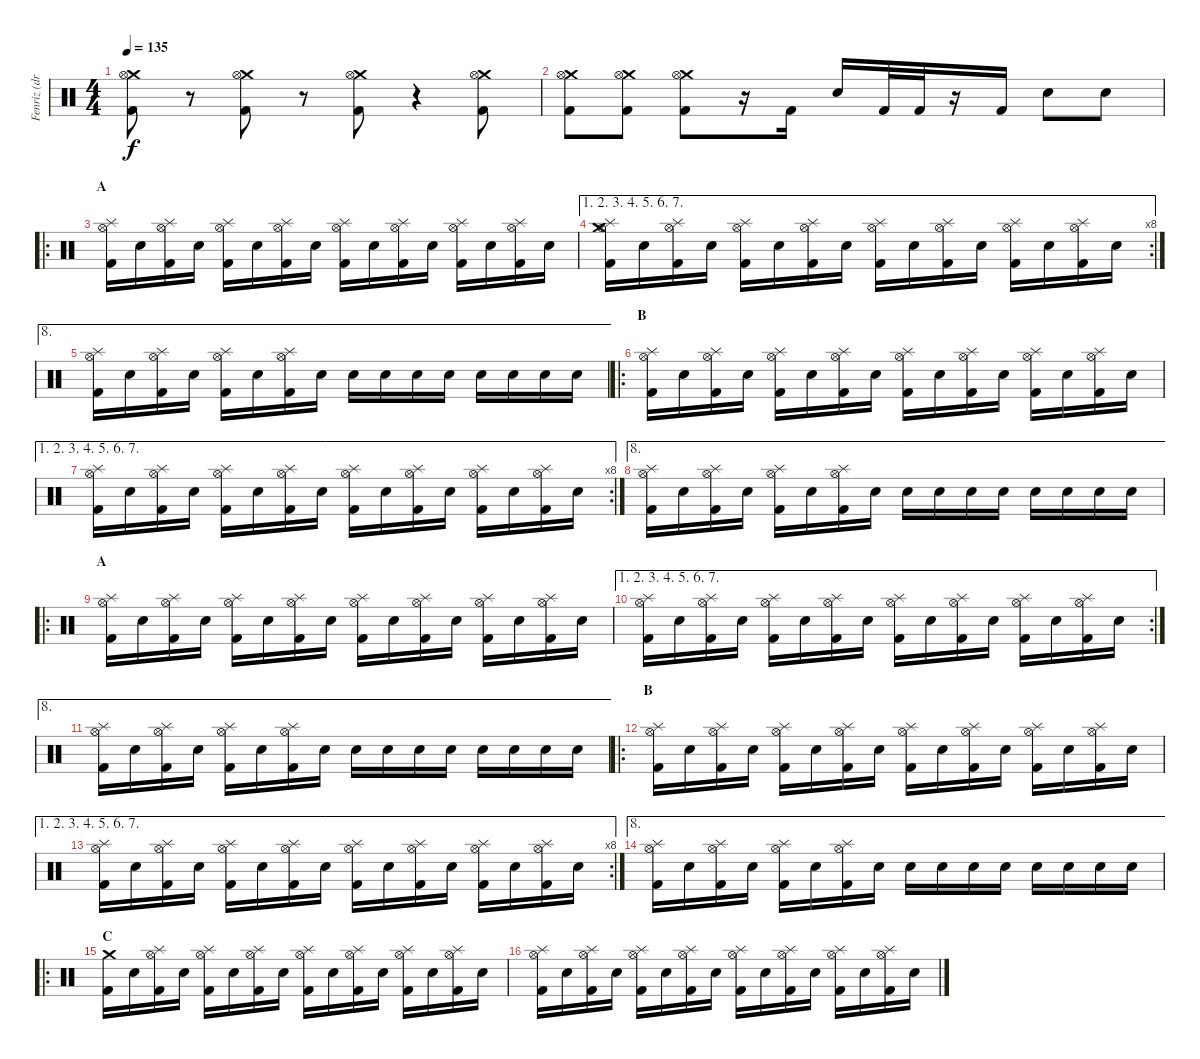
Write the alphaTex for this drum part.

\track ("Fenriz (drums)" "Fenriz (dr") {instrument percussion}
\staff {score}
\articulation defaults
\ts (4 4)
\tempo 135
\clef neutral
\ks c
("Crash medium (hit)" "Hi-Hat (open)" "Kick (hit) 2").8{dy f} r.8 ("Crash medium (hit)" "Hi-Hat (open)" "Kick (hit) 2").8 r.8 ("Crash medium (hit)" "Hi-Hat (open)" "Kick (hit) 2").8 r.4 ("Crash medium (hit)" "Hi-Hat (open)" "Kick (hit) 2").8 |
("Crash medium (hit)" "Hi-Hat (open)" "Kick (hit) 2").8 ("Crash medium (hit)" "Hi-Hat (open)" "Kick (hit) 2").8 ("Crash medium (hit)" "Hi-Hat (open)" "Kick (hit) 2").8 r.16 "Kick (hit) 2".16 "Electric Snare (hit)".16 "Kick (hit) 2".32 "Kick (hit) 2".32 r.16 "Kick (hit) 2".16 "Electric Snare (hit)".8 "Electric Snare (hit)".8 |
\ro
\section ("" "A")
("Hi-Hat (open)" "Splash (hit)" "Kick (hit) 2").16 "Electric Snare (hit)".16 ("Hi-Hat (open)" "Splash (hit)" "Kick (hit) 2").16 "Electric Snare (hit)".16 ("Hi-Hat (open)" "Splash (hit)" "Kick (hit) 2").16 "Electric Snare (hit)".16 ("Hi-Hat (open)" "Splash (hit)" "Kick (hit) 2").16 "Electric Snare (hit)".16 ("Hi-Hat (open)" "Splash (hit)" "Kick (hit) 2").16 "Electric Snare (hit)".16 ("Hi-Hat (open)" "Splash (hit)" "Kick (hit) 2").16 "Electric Snare (hit)".16 ("Hi-Hat (open)" "Splash (hit)" "Kick (hit) 2").16 "Electric Snare (hit)".16 ("Hi-Hat (open)" "Splash (hit)" "Kick (hit) 2").16 "Electric Snare (hit)".16 |
\ae (1 2 3 4 5 6 7)
\rc 8
("Crash medium (hit)" "Hi-Hat (open)" "Splash (hit)" "Kick (hit) 2").16 "Electric Snare (hit)".16 ("Hi-Hat (open)" "Splash (hit)" "Kick (hit) 2").16 "Electric Snare (hit)".16 ("Hi-Hat (open)" "Splash (hit)" "Kick (hit) 2").16 "Electric Snare (hit)".16 ("Hi-Hat (open)" "Splash (hit)" "Kick (hit) 2").16 "Electric Snare (hit)".16 ("Hi-Hat (open)" "Splash (hit)" "Kick (hit) 2").16 "Electric Snare (hit)".16 ("Hi-Hat (open)" "Splash (hit)" "Kick (hit) 2").16 "Electric Snare (hit)".16 ("Hi-Hat (open)" "Splash (hit)" "Kick (hit) 2").16 "Electric Snare (hit)".16 ("Hi-Hat (open)" "Splash (hit)" "Kick (hit) 2").16 "Electric Snare (hit)".16 |
\ae 8
("Hi-Hat (open)" "Splash (hit)" "Kick (hit) 2").16 "Electric Snare (hit)".16 ("Hi-Hat (open)" "Splash (hit)" "Kick (hit) 2").16 "Electric Snare (hit)".16 ("Hi-Hat (open)" "Splash (hit)" "Kick (hit) 2").16 "Electric Snare (hit)".16 ("Hi-Hat (open)" "Splash (hit)" "Kick (hit) 2").16 "Electric Snare (hit)".16 "Electric Snare (hit)".16 "Electric Snare (hit)".16 "Electric Snare (hit)".16 "Electric Snare (hit)".16 "Electric Snare (hit)".16 "Electric Snare (hit)".16 "Electric Snare (hit)".16 "Electric Snare (hit)".16 |
\ro
\section ("" "B")
("Hi-Hat (open)" "Splash (hit)" "Kick (hit) 2").16 "Electric Snare (hit)".16 ("Hi-Hat (open)" "Splash (hit)" "Kick (hit) 2").16 "Electric Snare (hit)".16 ("Hi-Hat (open)" "Splash (hit)" "Kick (hit) 2").16 "Electric Snare (hit)".16 ("Hi-Hat (open)" "Splash (hit)" "Kick (hit) 2").16 "Electric Snare (hit)".16 ("Hi-Hat (open)" "Splash (hit)" "Kick (hit) 2").16 "Electric Snare (hit)".16 ("Hi-Hat (open)" "Splash (hit)" "Kick (hit) 2").16 "Electric Snare (hit)".16 ("Hi-Hat (open)" "Splash (hit)" "Kick (hit) 2").16 "Electric Snare (hit)".16 ("Hi-Hat (open)" "Splash (hit)" "Kick (hit) 2").16 "Electric Snare (hit)".16 |
\ae (1 2 3 4 5 6 7)
\rc 8
("Hi-Hat (open)" "Splash (hit)" "Kick (hit) 2").16 "Electric Snare (hit)".16 ("Hi-Hat (open)" "Splash (hit)" "Kick (hit) 2").16 "Electric Snare (hit)".16 ("Hi-Hat (open)" "Splash (hit)" "Kick (hit) 2").16 "Electric Snare (hit)".16 ("Hi-Hat (open)" "Splash (hit)" "Kick (hit) 2").16 "Electric Snare (hit)".16 ("Hi-Hat (open)" "Splash (hit)" "Kick (hit) 2").16 "Electric Snare (hit)".16 ("Hi-Hat (open)" "Splash (hit)" "Kick (hit) 2").16 "Electric Snare (hit)".16 ("Hi-Hat (open)" "Splash (hit)" "Kick (hit) 2").16 "Electric Snare (hit)".16 ("Hi-Hat (open)" "Splash (hit)" "Kick (hit) 2").16 "Electric Snare (hit)".16 |
\ae 8
("Hi-Hat (open)" "Splash (hit)" "Kick (hit) 2").16 "Electric Snare (hit)".16 ("Hi-Hat (open)" "Splash (hit)" "Kick (hit) 2").16 "Electric Snare (hit)".16 ("Hi-Hat (open)" "Splash (hit)" "Kick (hit) 2").16 "Electric Snare (hit)".16 ("Hi-Hat (open)" "Splash (hit)" "Kick (hit) 2").16 "Electric Snare (hit)".16 "Electric Snare (hit)".16 "Electric Snare (hit)".16 "Electric Snare (hit)".16 "Electric Snare (hit)".16 "Electric Snare (hit)".16 "Electric Snare (hit)".16 "Electric Snare (hit)".16 "Electric Snare (hit)".16 |
\ro
\section ("" "A")
("Hi-Hat (open)" "Splash (hit)" "Kick (hit) 2").16 "Electric Snare (hit)".16 ("Hi-Hat (open)" "Splash (hit)" "Kick (hit) 2").16 "Electric Snare (hit)".16 ("Hi-Hat (open)" "Splash (hit)" "Kick (hit) 2").16 "Electric Snare (hit)".16 ("Hi-Hat (open)" "Splash (hit)" "Kick (hit) 2").16 "Electric Snare (hit)".16 ("Hi-Hat (open)" "Splash (hit)" "Kick (hit) 2").16 "Electric Snare (hit)".16 ("Hi-Hat (open)" "Splash (hit)" "Kick (hit) 2").16 "Electric Snare (hit)".16 ("Hi-Hat (open)" "Splash (hit)" "Kick (hit) 2").16 "Electric Snare (hit)".16 ("Hi-Hat (open)" "Splash (hit)" "Kick (hit) 2").16 "Electric Snare (hit)".16 |
\ae (1 2 3 4 5 6 7)
\rc 2
("Hi-Hat (open)" "Splash (hit)" "Kick (hit) 2").16 "Electric Snare (hit)".16 ("Hi-Hat (open)" "Splash (hit)" "Kick (hit) 2").16 "Electric Snare (hit)".16 ("Hi-Hat (open)" "Splash (hit)" "Kick (hit) 2").16 "Electric Snare (hit)".16 ("Hi-Hat (open)" "Splash (hit)" "Kick (hit) 2").16 "Electric Snare (hit)".16 ("Hi-Hat (open)" "Splash (hit)" "Kick (hit) 2").16 "Electric Snare (hit)".16 ("Hi-Hat (open)" "Splash (hit)" "Kick (hit) 2").16 "Electric Snare (hit)".16 ("Hi-Hat (open)" "Splash (hit)" "Kick (hit) 2").16 "Electric Snare (hit)".16 ("Hi-Hat (open)" "Splash (hit)" "Kick (hit) 2").16 "Electric Snare (hit)".16 |
\ae 8
("Hi-Hat (open)" "Splash (hit)" "Kick (hit) 2").16 "Electric Snare (hit)".16 ("Hi-Hat (open)" "Splash (hit)" "Kick (hit) 2").16 "Electric Snare (hit)".16 ("Hi-Hat (open)" "Splash (hit)" "Kick (hit) 2").16 "Electric Snare (hit)".16 ("Hi-Hat (open)" "Splash (hit)" "Kick (hit) 2").16 "Electric Snare (hit)".16 "Electric Snare (hit)".16 "Electric Snare (hit)".16 "Electric Snare (hit)".16 "Electric Snare (hit)".16 "Electric Snare (hit)".16 "Electric Snare (hit)".16 "Electric Snare (hit)".16 "Electric Snare (hit)".16 |
\ro
\section ("" "B")
("Hi-Hat (open)" "Splash (hit)" "Kick (hit) 2").16 "Electric Snare (hit)".16 ("Hi-Hat (open)" "Splash (hit)" "Kick (hit) 2").16 "Electric Snare (hit)".16 ("Hi-Hat (open)" "Splash (hit)" "Kick (hit) 2").16 "Electric Snare (hit)".16 ("Hi-Hat (open)" "Splash (hit)" "Kick (hit) 2").16 "Electric Snare (hit)".16 ("Hi-Hat (open)" "Splash (hit)" "Kick (hit) 2").16 "Electric Snare (hit)".16 ("Hi-Hat (open)" "Splash (hit)" "Kick (hit) 2").16 "Electric Snare (hit)".16 ("Hi-Hat (open)" "Splash (hit)" "Kick (hit) 2").16 "Electric Snare (hit)".16 ("Hi-Hat (open)" "Splash (hit)" "Kick (hit) 2").16 "Electric Snare (hit)".16 |
\ae (1 2 3 4 5 6 7)
\rc 8
("Hi-Hat (open)" "Splash (hit)" "Kick (hit) 2").16 "Electric Snare (hit)".16 ("Hi-Hat (open)" "Splash (hit)" "Kick (hit) 2").16 "Electric Snare (hit)".16 ("Hi-Hat (open)" "Splash (hit)" "Kick (hit) 2").16 "Electric Snare (hit)".16 ("Hi-Hat (open)" "Splash (hit)" "Kick (hit) 2").16 "Electric Snare (hit)".16 ("Hi-Hat (open)" "Splash (hit)" "Kick (hit) 2").16 "Electric Snare (hit)".16 ("Hi-Hat (open)" "Splash (hit)" "Kick (hit) 2").16 "Electric Snare (hit)".16 ("Hi-Hat (open)" "Splash (hit)" "Kick (hit) 2").16 "Electric Snare (hit)".16 ("Hi-Hat (open)" "Splash (hit)" "Kick (hit) 2").16 "Electric Snare (hit)".16 |
\ae 8
("Hi-Hat (open)" "Splash (hit)" "Kick (hit) 2").16 "Electric Snare (hit)".16 ("Hi-Hat (open)" "Splash (hit)" "Kick (hit) 2").16 "Electric Snare (hit)".16 ("Hi-Hat (open)" "Splash (hit)" "Kick (hit) 2").16 "Electric Snare (hit)".16 ("Hi-Hat (open)" "Splash (hit)" "Kick (hit) 2").16 "Electric Snare (hit)".16 "Electric Snare (hit)".16 "Electric Snare (hit)".16 "Electric Snare (hit)".16 "Electric Snare (hit)".16 "Electric Snare (hit)".16 "Electric Snare (hit)".16 "Electric Snare (hit)".16 "Electric Snare (hit)".16 |
\ro
\section ("" "C")
("Crash medium (hit)" "Kick (hit) 2").16 "Electric Snare (hit)".16 ("Hi-Hat (open)" "Splash (hit)" "Kick (hit) 2").16 "Electric Snare (hit)".16 ("Hi-Hat (open)" "Splash (hit)" "Kick (hit) 2").16 "Electric Snare (hit)".16 ("Hi-Hat (open)" "Splash (hit)" "Kick (hit) 2").16 "Electric Snare (hit)".16 ("Hi-Hat (open)" "Splash (hit)" "Kick (hit) 2").16 "Electric Snare (hit)".16 ("Hi-Hat (open)" "Splash (hit)" "Kick (hit) 2").16 "Electric Snare (hit)".16 ("Hi-Hat (open)" "Splash (hit)" "Kick (hit) 2").16 "Electric Snare (hit)".16 ("Hi-Hat (open)" "Splash (hit)" "Kick (hit) 2").16 "Electric Snare (hit)".16 |
("Hi-Hat (open)" "Splash (hit)" "Kick (hit) 2").16 "Electric Snare (hit)".16 ("Hi-Hat (open)" "Splash (hit)" "Kick (hit) 2").16 "Electric Snare (hit)".16 ("Hi-Hat (open)" "Splash (hit)" "Kick (hit) 2").16 "Electric Snare (hit)".16 ("Hi-Hat (open)" "Splash (hit)" "Kick (hit) 2").16 "Electric Snare (hit)".16 ("Hi-Hat (open)" "Splash (hit)" "Kick (hit) 2").16 "Electric Snare (hit)".16 ("Hi-Hat (open)" "Splash (hit)" "Kick (hit) 2").16 "Electric Snare (hit)".16 ("Hi-Hat (open)" "Splash (hit)" "Kick (hit) 2").16 "Electric Snare (hit)".16 ("Hi-Hat (open)" "Splash (hit)" "Kick (hit) 2").16 "Electric Snare (hit)".16
